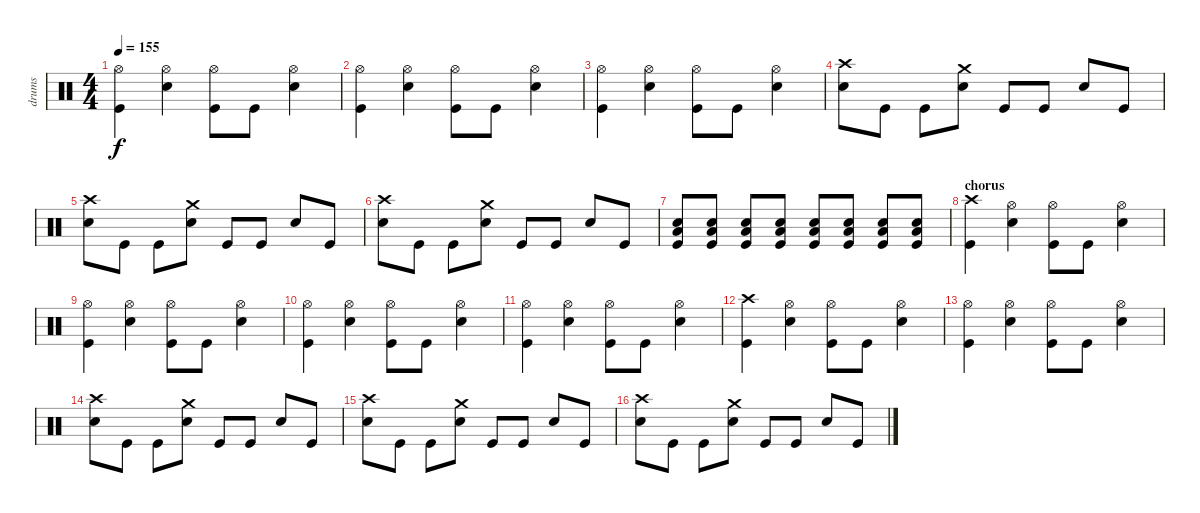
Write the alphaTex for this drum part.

\track ("drums" "drums") {instrument percussion}
\staff {score}
\articulation defaults
\ts (4 4)
\tempo 155
\clef neutral
\ks c
("Hi-Hat (open)" "Kick (hit)").4{dy f} ("Hi-Hat (open)" "Snare (hit) 2").4 ("Hi-Hat (open)" "Kick (hit)").8 "Kick (hit)".8 ("Hi-Hat (open)" "Snare (hit) 2").4 |
("Hi-Hat (open)" "Kick (hit)").4 ("Hi-Hat (open)" "Snare (hit) 2").4 ("Hi-Hat (open)" "Kick (hit)").8 "Kick (hit)".8 ("Hi-Hat (open)" "Snare (hit) 2").4 |
("Hi-Hat (open)" "Kick (hit)").4 ("Hi-Hat (open)" "Snare (hit) 2").4 ("Hi-Hat (open)" "Kick (hit)").8 "Kick (hit)".8 ("Hi-Hat (open)" "Snare (hit) 2").4 |
("Crash high (hit)" "Snare (hit) 2").8 "Kick (hit)".8 "Kick (hit)".8 ("Crash medium (hit)" "Snare (hit) 2").8 "Kick (hit)".8 "Kick (hit)".8 "Snare (hit) 2".8 "Kick (hit)".8 |
("Crash high (hit)" "Snare (hit) 2").8 "Kick (hit)".8 "Kick (hit)".8 ("Crash medium (hit)" "Snare (hit) 2").8 "Kick (hit)".8 "Kick (hit)".8 "Snare (hit) 2".8 "Kick (hit)".8 |
("Crash high (hit)" "Snare (hit) 2").8 "Kick (hit)".8 "Kick (hit)".8 ("Crash medium (hit)" "Snare (hit) 2").8 "Kick (hit)".8 "Kick (hit)".8 "Snare (hit) 2".8 "Kick (hit)".8 |
("Snare (hit) 2" "Low Floor Tom (hit)" "Kick (hit)").8 ("Snare (hit) 2" "Low Floor Tom (hit)" "Kick (hit)").8 ("Snare (hit) 2" "Low Floor Tom (hit)" "Kick (hit)").8 ("Snare (hit) 2" "Low Floor Tom (hit)" "Kick (hit)").8 ("Snare (hit) 2" "Low Floor Tom (hit)" "Kick (hit)").8 ("Snare (hit) 2" "Low Floor Tom (hit)" "Kick (hit)").8 ("Snare (hit) 2" "Low Floor Tom (hit)" "Kick (hit)").8 ("Snare (hit) 2" "Low Floor Tom (hit)" "Kick (hit)").8 |
\section ("" "chorus")
("Crash high (hit)" "Kick (hit)").4 ("Hi-Hat (open)" "Snare (hit) 2").4 ("Hi-Hat (open)" "Kick (hit)").8 "Kick (hit)".8 ("Hi-Hat (open)" "Snare (hit) 2").4 |
("Hi-Hat (open)" "Kick (hit)").4 ("Hi-Hat (open)" "Snare (hit) 2").4 ("Hi-Hat (open)" "Kick (hit)").8 "Kick (hit)".8 ("Hi-Hat (open)" "Snare (hit) 2").4 |
("Hi-Hat (open)" "Kick (hit)").4 ("Hi-Hat (open)" "Snare (hit) 2").4 ("Hi-Hat (open)" "Kick (hit)").8 "Kick (hit)".8 ("Hi-Hat (open)" "Snare (hit) 2").4 |
("Hi-Hat (open)" "Kick (hit)").4 ("Hi-Hat (open)" "Snare (hit) 2").4 ("Hi-Hat (open)" "Kick (hit)").8 "Kick (hit)".8 ("Hi-Hat (open)" "Snare (hit) 2").4 |
("Crash high (hit)" "Kick (hit)").4 ("Hi-Hat (open)" "Snare (hit) 2").4 ("Hi-Hat (open)" "Kick (hit)").8 "Kick (hit)".8 ("Hi-Hat (open)" "Snare (hit) 2").4 |
("Hi-Hat (open)" "Kick (hit)").4 ("Hi-Hat (open)" "Snare (hit) 2").4 ("Hi-Hat (open)" "Kick (hit)").8 "Kick (hit)".8 ("Hi-Hat (open)" "Snare (hit) 2").4 |
("Crash high (hit)" "Snare (hit) 2").8 "Kick (hit)".8 "Kick (hit)".8 ("Crash medium (hit)" "Snare (hit) 2").8 "Kick (hit)".8 "Kick (hit)".8 "Snare (hit) 2".8 "Kick (hit)".8 |
("Crash high (hit)" "Snare (hit) 2").8 "Kick (hit)".8 "Kick (hit)".8 ("Crash medium (hit)" "Snare (hit) 2").8 "Kick (hit)".8 "Kick (hit)".8 "Snare (hit) 2".8 "Kick (hit)".8 |
("Crash high (hit)" "Snare (hit) 2").8 "Kick (hit)".8 "Kick (hit)".8 ("Crash medium (hit)" "Snare (hit) 2").8 "Kick (hit)".8 "Kick (hit)".8 "Snare (hit) 2".8 "Kick (hit)".8
